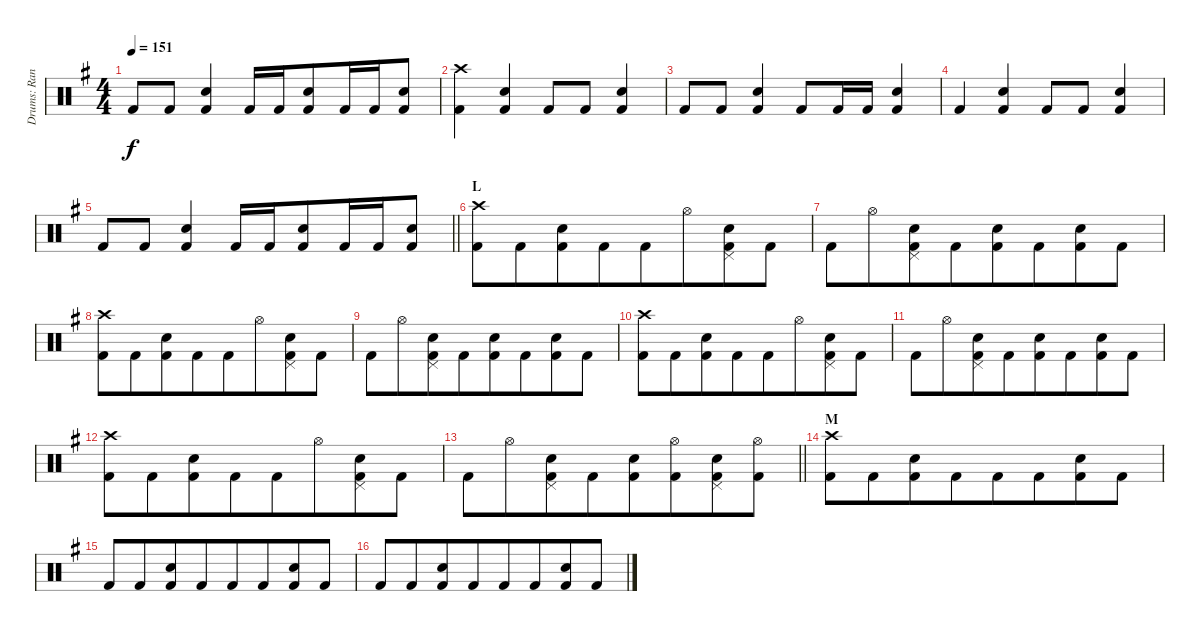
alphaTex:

\track ("Drums: Randy" "Drums: Ran") {instrument percussion}
\staff {score}
\articulation defaults
\ts (4 4)
\tempo 151
\clef neutral
\ks g "Kick (hit) 2".8{dy f} "Kick (hit) 2".8
("Snare (hit) 2" "Kick (hit) 2").4 "Kick (hit) 2".16 "Kick (hit) 2".16 ("Snare (hit) 2" "Kick (hit) 2").8{beam merge} "Kick (hit) 2".16 "Kick (hit) 2".16 ("Snare (hit) 2" "Kick (hit) 2").8 |
("Crash high (hit)" "Kick (hit) 2").4 ("Snare (hit) 2" "Kick (hit) 2").4 "Kick (hit) 2".8 "Kick (hit) 2".8 ("Snare (hit) 2" "Kick (hit) 2").4 |
"Kick (hit) 2".8 "Kick (hit) 2".8 ("Snare (hit) 2" "Kick (hit) 2").4 "Kick (hit) 2".8 "Kick (hit) 2".16 "Kick (hit) 2".16 ("Snare (hit) 2" "Kick (hit) 2").4 |
"Kick (hit) 2".4 ("Snare (hit) 2" "Kick (hit) 2").4 "Kick (hit) 2".8 "Kick (hit) 2".8 ("Snare (hit) 2" "Kick (hit) 2").4 |
\barLineRight lightlight "Kick (hit) 2".8 "Kick (hit) 2".8
("Snare (hit) 2" "Kick (hit) 2").4 "Kick (hit) 2".16 "Kick (hit) 2".16 ("Snare (hit) 2" "Kick (hit) 2").8{beam merge} "Kick (hit) 2".16 "Kick (hit) 2".16 ("Snare (hit) 2" "Kick (hit) 2").8 |
\section ("" "L")
("Crash high (hit)" "Kick (hit) 2").8 "Kick (hit) 2".8{beam merge} ("Snare (hit) 2" "Kick (hit) 2").8 "Kick (hit) 2".8{beam merge} "Kick (hit) 2".8 "Hi-Hat (open)".8{beam merge} ("Pedal Hi-Hat (hit)" "Snare (hit) 2" "Kick (hit) 2").8 "Kick (hit) 2".8 |
"Kick (hit) 2".8 "Hi-Hat (open)".8{beam merge} ("Pedal Hi-Hat (hit)" "Snare (hit) 2" "Kick (hit) 2").8 "Kick (hit) 2".8{beam merge} ("Snare (hit) 2" "Kick (hit) 2").8 "Kick (hit) 2".8{beam merge} ("Snare (hit) 2" "Kick (hit) 2").8 "Kick (hit) 2".8 |
("Crash high (hit)" "Kick (hit) 2").8 "Kick (hit) 2".8{beam merge} ("Snare (hit) 2" "Kick (hit) 2").8 "Kick (hit) 2".8{beam merge} "Kick (hit) 2".8 "Hi-Hat (open)".8{beam merge} ("Pedal Hi-Hat (hit)" "Snare (hit) 2" "Kick (hit) 2").8 "Kick (hit) 2".8 |
"Kick (hit) 2".8 "Hi-Hat (open)".8{beam merge} ("Pedal Hi-Hat (hit)" "Snare (hit) 2" "Kick (hit) 2").8 "Kick (hit) 2".8{beam merge} ("Snare (hit) 2" "Kick (hit) 2").8 "Kick (hit) 2".8{beam merge} ("Snare (hit) 2" "Kick (hit) 2").8 "Kick (hit) 2".8 |
("Crash high (hit)" "Kick (hit) 2").8 "Kick (hit) 2".8{beam merge} ("Snare (hit) 2" "Kick (hit) 2").8 "Kick (hit) 2".8{beam merge} "Kick (hit) 2".8 "Hi-Hat (open)".8{beam merge} ("Pedal Hi-Hat (hit)" "Snare (hit) 2" "Kick (hit) 2").8 "Kick (hit) 2".8 |
"Kick (hit) 2".8 "Hi-Hat (open)".8{beam merge} ("Pedal Hi-Hat (hit)" "Snare (hit) 2" "Kick (hit) 2").8 "Kick (hit) 2".8{beam merge} ("Snare (hit) 2" "Kick (hit) 2").8 "Kick (hit) 2".8{beam merge} ("Snare (hit) 2" "Kick (hit) 2").8 "Kick (hit) 2".8 |
("Crash high (hit)" "Kick (hit) 2").8 "Kick (hit) 2".8{beam merge} ("Snare (hit) 2" "Kick (hit) 2").8 "Kick (hit) 2".8{beam merge} "Kick (hit) 2".8 "Hi-Hat (open)".8{beam merge} ("Pedal Hi-Hat (hit)" "Snare (hit) 2" "Kick (hit) 2").8 "Kick (hit) 2".8 |
\barLineRight lightlight "Kick (hit) 2".8 "Hi-Hat (open)".8{beam merge}
("Pedal Hi-Hat (hit)" "Snare (hit) 2" "Kick (hit) 2").8 "Kick (hit) 2".8{beam merge} ("Snare (hit) 2" "Kick (hit) 2").8 ("Hi-Hat (open)" "Kick (hit) 2").8{beam merge} ("Pedal Hi-Hat (hit)" "Snare (hit) 2" "Kick (hit) 2").8 ("Hi-Hat (open)" "Kick (hit) 2").8 |
\section ("" "M")
("Crash high (hit)" "Kick (hit) 2").8 "Kick (hit) 2".8{beam merge} ("Snare (hit) 2" "Kick (hit) 2").8 "Kick (hit) 2".8{beam merge} "Kick (hit) 2".8 "Kick (hit) 2".8{beam merge} ("Snare (hit) 2" "Kick (hit) 2").8 "Kick (hit) 2".8 |
"Kick (hit) 2".8 "Kick (hit) 2".8{beam merge} ("Snare (hit) 2" "Kick (hit) 2").8 "Kick (hit) 2".8{beam merge} "Kick (hit) 2".8 "Kick (hit) 2".8{beam merge} ("Snare (hit) 2" "Kick (hit) 2").8 "Kick (hit) 2".8 |
"Kick (hit) 2".8 "Kick (hit) 2".8{beam merge} ("Snare (hit) 2" "Kick (hit) 2").8 "Kick (hit) 2".8{beam merge} "Kick (hit) 2".8 "Kick (hit) 2".8{beam merge} ("Snare (hit) 2" "Kick (hit) 2").8 "Kick (hit) 2".8
